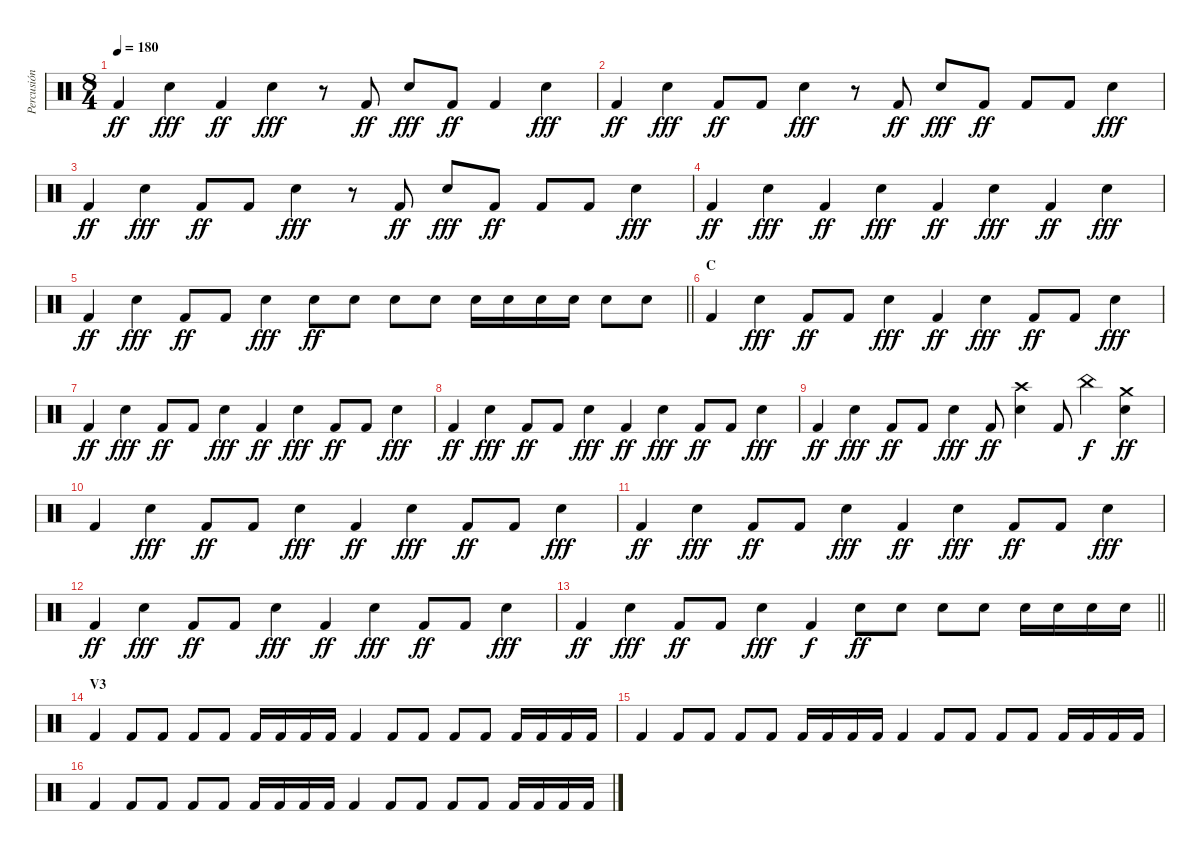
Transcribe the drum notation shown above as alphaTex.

\track ("Percusión" "Percusión") {instrument percussion}
\staff {score}
\articulation defaults
\ts (8 4)
\tempo 180
\clef neutral
\ks c "Kick (hit) 2".4{dy ff} "Electric Snare (hit)".4{dy fff} "Kick (hit) 2".4{dy ff} "Electric Snare (hit)".4{dy fff}
r.8 "Kick (hit) 2".8{dy ff} "Electric Snare (hit)".8{dy fff} "Kick (hit) 2".8{dy ff} "Kick (hit) 2".4 "Electric Snare (hit)".4{dy fff} |
"Kick (hit) 2".4{dy ff} "Electric Snare (hit)".4{dy fff} "Kick (hit) 2".8{dy ff} "Kick (hit) 2".8 "Electric Snare (hit)".4{dy fff} r.8 "Kick (hit) 2".8{dy ff} "Electric Snare (hit)".8{dy fff} "Kick (hit) 2".8{dy ff} "Kick (hit) 2".8 "Kick (hit) 2".8 "Electric Snare (hit)".4{dy fff} |
"Kick (hit) 2".4{dy ff} "Electric Snare (hit)".4{dy fff} "Kick (hit) 2".8{dy ff} "Kick (hit) 2".8 "Electric Snare (hit)".4{dy fff} r.8 "Kick (hit) 2".8{dy ff} "Electric Snare (hit)".8{dy fff} "Kick (hit) 2".8{dy ff} "Kick (hit) 2".8 "Kick (hit) 2".8 "Electric Snare (hit)".4{dy fff} |
"Kick (hit) 2".4{dy ff} "Electric Snare (hit)".4{dy fff} "Kick (hit) 2".4{dy ff} "Electric Snare (hit)".4{dy fff} "Kick (hit) 2".4{dy ff} "Electric Snare (hit)".4{dy fff} "Kick (hit) 2".4{dy ff} "Electric Snare (hit)".4{dy fff} |
\barLineRight lightlight "Kick (hit) 2".4{dy ff} "Electric Snare (hit)".4{dy fff} "Kick (hit) 2".8{dy ff} "Kick (hit) 2".8 "Electric Snare (hit)".4{dy fff} "Electric Snare (hit)".8{dy ff} "Electric Snare (hit)".8 "Electric Snare (hit)".8 "Electric Snare (hit)".8 "Electric Snare (hit)".16 "Electric Snare (hit)".16 "Electric Snare (hit)".16 "Electric Snare (hit)".16 "Electric Snare (hit)".8 "Electric Snare (hit)".8
|
\section ("" "C")
"Kick (hit) 2".4 "Electric Snare (hit)".4{dy fff} "Kick (hit) 2".8{dy ff} "Kick (hit) 2".8 "Electric Snare (hit)".4{dy fff} "Kick (hit) 2".4{dy ff} "Electric Snare (hit)".4{dy fff} "Kick (hit) 2".8{dy ff} "Kick (hit) 2".8 "Electric Snare (hit)".4{dy fff} |
"Kick (hit) 2".4{dy ff} "Electric Snare (hit)".4{dy fff} "Kick (hit) 2".8{dy ff} "Kick (hit) 2".8 "Electric Snare (hit)".4{dy fff} "Kick (hit) 2".4{dy ff} "Electric Snare (hit)".4{dy fff} "Kick (hit) 2".8{dy ff} "Kick (hit) 2".8 "Electric Snare (hit)".4{dy fff} |
"Kick (hit) 2".4{dy ff} "Electric Snare (hit)".4{dy fff} "Kick (hit) 2".8{dy ff} "Kick (hit) 2".8 "Electric Snare (hit)".4{dy fff} "Kick (hit) 2".4{dy ff} "Electric Snare (hit)".4{dy fff} "Kick (hit) 2".8{dy ff} "Kick (hit) 2".8 "Electric Snare (hit)".4{dy fff} |
"Kick (hit) 2".4{dy ff} "Electric Snare (hit)".4{dy fff} "Kick (hit) 2".8{dy ff} "Kick (hit) 2".8 "Electric Snare (hit)".4{dy fff} "Kick (hit) 2".8{dy ff} ("Crash high (hit)" "Electric Snare (hit)").4 "Kick (hit) 2".8 "China (hit)".4{dy f} ("Crash medium (hit)" "Electric Snare (hit)").4{dy ff} |
"Kick (hit) 2".4 "Electric Snare (hit)".4{dy fff} "Kick (hit) 2".8{dy ff} "Kick (hit) 2".8 "Electric Snare (hit)".4{dy fff} "Kick (hit) 2".4{dy ff} "Electric Snare (hit)".4{dy fff} "Kick (hit) 2".8{dy ff} "Kick (hit) 2".8 "Electric Snare (hit)".4{dy fff} |
"Kick (hit) 2".4{dy ff} "Electric Snare (hit)".4{dy fff} "Kick (hit) 2".8{dy ff} "Kick (hit) 2".8 "Electric Snare (hit)".4{dy fff} "Kick (hit) 2".4{dy ff} "Electric Snare (hit)".4{dy fff} "Kick (hit) 2".8{dy ff} "Kick (hit) 2".8 "Electric Snare (hit)".4{dy fff} |
"Kick (hit) 2".4{dy ff} "Electric Snare (hit)".4{dy fff} "Kick (hit) 2".8{dy ff} "Kick (hit) 2".8 "Electric Snare (hit)".4{dy fff} "Kick (hit) 2".4{dy ff} "Electric Snare (hit)".4{dy fff} "Kick (hit) 2".8{dy ff} "Kick (hit) 2".8 "Electric Snare (hit)".4{dy fff} |
\barLineRight lightlight "Kick (hit) 2".4{dy ff} "Electric Snare (hit)".4{dy fff} "Kick (hit) 2".8{dy ff} "Kick (hit) 2".8 "Electric Snare (hit)".4{dy fff} "Kick (hit) 2".4{dy f} "Electric Snare (hit)".8{dy ff} "Electric Snare (hit)".8 "Electric Snare (hit)".8 "Electric Snare (hit)".8 "Electric Snare (hit)".16 "Electric Snare (hit)".16 "Electric Snare (hit)".16 "Electric Snare (hit)".16
|
\section ("" "V3")
"Kick (hit) 2".4 "Kick (hit) 2".8 "Kick (hit) 2".8 "Kick (hit) 2".8 "Kick (hit) 2".8 "Kick (hit) 2".16 "Kick (hit) 2".16 "Kick (hit) 2".16 "Kick (hit) 2".16 "Kick (hit) 2".4 "Kick (hit) 2".8 "Kick (hit) 2".8 "Kick (hit) 2".8 "Kick (hit) 2".8 "Kick (hit) 2".16 "Kick (hit) 2".16 "Kick (hit) 2".16 "Kick (hit) 2".16 |
"Kick (hit) 2".4 "Kick (hit) 2".8 "Kick (hit) 2".8 "Kick (hit) 2".8 "Kick (hit) 2".8 "Kick (hit) 2".16 "Kick (hit) 2".16 "Kick (hit) 2".16 "Kick (hit) 2".16 "Kick (hit) 2".4 "Kick (hit) 2".8 "Kick (hit) 2".8 "Kick (hit) 2".8 "Kick (hit) 2".8 "Kick (hit) 2".16 "Kick (hit) 2".16 "Kick (hit) 2".16 "Kick (hit) 2".16 |
"Kick (hit) 2".4 "Kick (hit) 2".8 "Kick (hit) 2".8 "Kick (hit) 2".8 "Kick (hit) 2".8 "Kick (hit) 2".16 "Kick (hit) 2".16 "Kick (hit) 2".16 "Kick (hit) 2".16 "Kick (hit) 2".4 "Kick (hit) 2".8 "Kick (hit) 2".8 "Kick (hit) 2".8 "Kick (hit) 2".8 "Kick (hit) 2".16 "Kick (hit) 2".16 "Kick (hit) 2".16 "Kick (hit) 2".16
